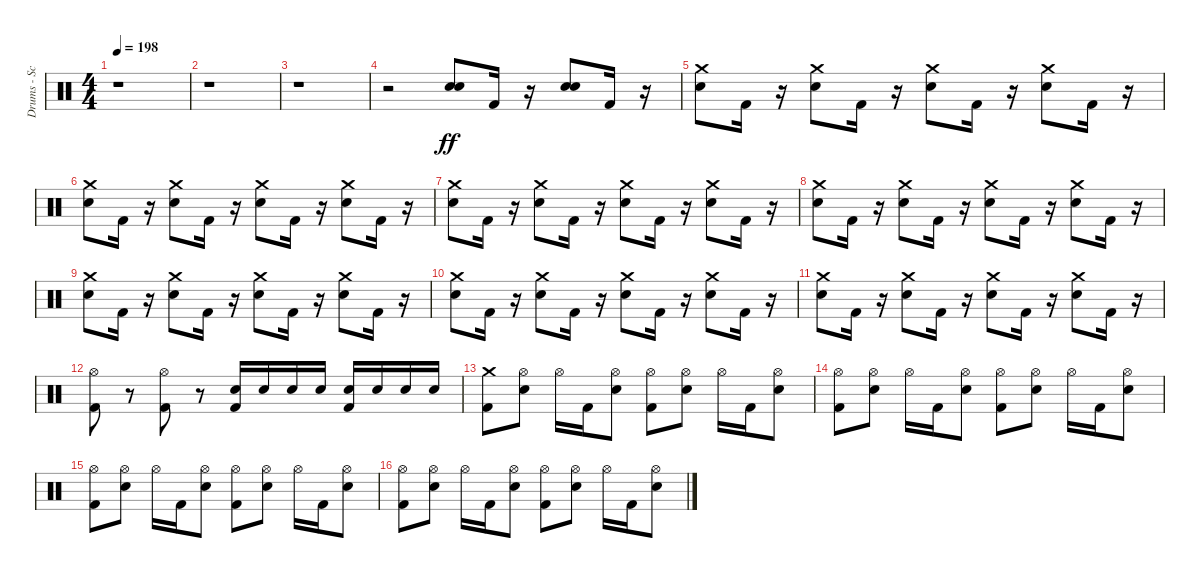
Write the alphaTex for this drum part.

\track ("Drums - Scott" "Drums - Sc") {instrument percussion}
\staff {score}
\articulation defaults
\ts (4 4)
\tempo 198
\clef neutral
\ks c
r.1{dy ff} |
r.1 |
r.1 |
r.2 ("Electric Snare (hit)" "Electric Snare (hit)").8 "Kick (hit) 2".16 r.16 ("Electric Snare (hit)" "Electric Snare (hit)").8 "Kick (hit) 2".16 r.16 |
("Electric Snare (hit)" "Crash medium (hit)").8 "Kick (hit) 2".16 r.16 ("Electric Snare (hit)" "Crash medium (hit)").8 "Kick (hit) 2".16 r.16 ("Electric Snare (hit)" "Crash medium (hit)").8 "Kick (hit) 2".16 r.16 ("Electric Snare (hit)" "Crash medium (hit)").8 "Kick (hit) 2".16 r.16 |
("Electric Snare (hit)" "Crash medium (hit)").8 "Kick (hit) 2".16 r.16 ("Electric Snare (hit)" "Crash medium (hit)").8 "Kick (hit) 2".16 r.16 ("Electric Snare (hit)" "Crash medium (hit)").8 "Kick (hit) 2".16 r.16 ("Electric Snare (hit)" "Crash medium (hit)").8 "Kick (hit) 2".16 r.16 |
("Electric Snare (hit)" "Crash medium (hit)").8 "Kick (hit) 2".16 r.16 ("Electric Snare (hit)" "Crash medium (hit)").8 "Kick (hit) 2".16 r.16 ("Electric Snare (hit)" "Crash medium (hit)").8 "Kick (hit) 2".16 r.16 ("Electric Snare (hit)" "Crash medium (hit)").8 "Kick (hit) 2".16 r.16 |
("Electric Snare (hit)" "Crash medium (hit)").8 "Kick (hit) 2".16 r.16 ("Electric Snare (hit)" "Crash medium (hit)").8 "Kick (hit) 2".16 r.16 ("Electric Snare (hit)" "Crash medium (hit)").8 "Kick (hit) 2".16 r.16 ("Electric Snare (hit)" "Crash medium (hit)").8 "Kick (hit) 2".16 r.16 |
("Electric Snare (hit)" "Crash medium (hit)").8 "Kick (hit) 2".16 r.16 ("Electric Snare (hit)" "Crash medium (hit)").8 "Kick (hit) 2".16 r.16 ("Electric Snare (hit)" "Crash medium (hit)").8 "Kick (hit) 2".16 r.16 ("Electric Snare (hit)" "Crash medium (hit)").8 "Kick (hit) 2".16 r.16 |
("Electric Snare (hit)" "Crash medium (hit)").8 "Kick (hit) 2".16 r.16 ("Electric Snare (hit)" "Crash medium (hit)").8 "Kick (hit) 2".16 r.16 ("Electric Snare (hit)" "Crash medium (hit)").8 "Kick (hit) 2".16 r.16 ("Electric Snare (hit)" "Crash medium (hit)").8 "Kick (hit) 2".16 r.16 |
("Electric Snare (hit)" "Crash medium (hit)").8 "Kick (hit) 2".16 r.16 ("Electric Snare (hit)" "Crash medium (hit)").8 "Kick (hit) 2".16 r.16 ("Electric Snare (hit)" "Crash medium (hit)").8 "Kick (hit) 2".16 r.16 ("Electric Snare (hit)" "Crash medium (hit)").8 "Kick (hit) 2".16 r.16 |
("Kick (hit) 2" "Hi-Hat (open)").8 r.8 ("Kick (hit) 2" "Hi-Hat (open)").8 r.8 ("Kick (hit) 2" "Electric Snare (hit)").16 "Electric Snare (hit)".16 "Electric Snare (hit)".16 "Electric Snare (hit)".16 ("Kick (hit) 2" "Electric Snare (hit)").16 "Electric Snare (hit)".16 "Electric Snare (hit)".16 "Electric Snare (hit)".16 |
("Crash medium (hit)" "Kick (hit) 2").8 ("Hi-Hat (open)" "Electric Snare (hit)").8 "Hi-Hat (open)".16 "Kick (hit) 2".16 ("Hi-Hat (open)" "Electric Snare (hit)").8 ("Hi-Hat (open)" "Kick (hit) 2").8 ("Hi-Hat (open)" "Electric Snare (hit)").8 "Hi-Hat (open)".16 "Kick (hit) 2".16 ("Hi-Hat (open)" "Electric Snare (hit)").8 |
("Hi-Hat (open)" "Kick (hit) 2").8 ("Hi-Hat (open)" "Electric Snare (hit)").8 "Hi-Hat (open)".16 "Kick (hit) 2".16 ("Hi-Hat (open)" "Electric Snare (hit)").8 ("Hi-Hat (open)" "Kick (hit) 2").8 ("Hi-Hat (open)" "Electric Snare (hit)").8 "Hi-Hat (open)".16 "Kick (hit) 2".16 ("Hi-Hat (open)" "Electric Snare (hit)").8 |
("Hi-Hat (open)" "Kick (hit) 2").8 ("Hi-Hat (open)" "Electric Snare (hit)").8 "Hi-Hat (open)".16 "Kick (hit) 2".16 ("Hi-Hat (open)" "Electric Snare (hit)").8 ("Hi-Hat (open)" "Kick (hit) 2").8 ("Hi-Hat (open)" "Electric Snare (hit)").8 "Hi-Hat (open)".16 "Kick (hit) 2".16 ("Hi-Hat (open)" "Electric Snare (hit)").8 |
("Hi-Hat (open)" "Kick (hit) 2").8 ("Hi-Hat (open)" "Electric Snare (hit)").8 "Hi-Hat (open)".16 "Kick (hit) 2".16 ("Hi-Hat (open)" "Electric Snare (hit)").8 ("Hi-Hat (open)" "Kick (hit) 2").8 ("Hi-Hat (open)" "Electric Snare (hit)").8 "Hi-Hat (open)".16 "Kick (hit) 2".16 ("Hi-Hat (open)" "Electric Snare (hit)").8
